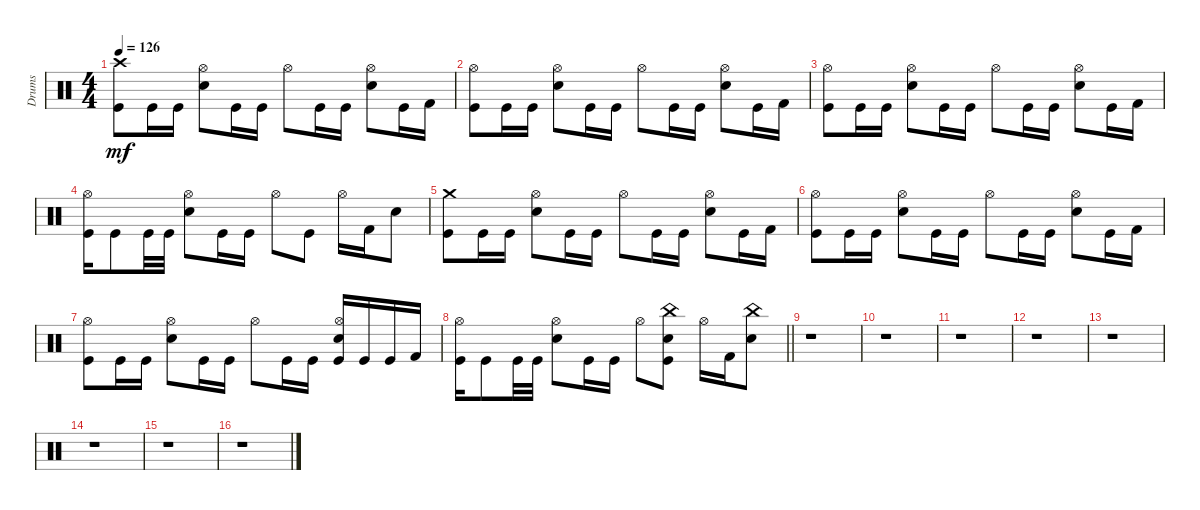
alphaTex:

\track ("Drums" "Drums") {instrument percussion bank 127}
\staff {score}
\articulation defaults
\ts (4 4)
\tempo 126
\clef neutral
\ks c
("Crash high (hit)" "Kick (hit)").8{dy mf} "Kick (hit)".16 "Kick (hit)".16 ("Hi-Hat (open)" "Snare (hit) 2").8 "Kick (hit)".16 "Kick (hit)".16 "Hi-Hat (open)".8 "Kick (hit)".16 "Kick (hit)".16 ("Hi-Hat (open)" "Snare (hit) 2").8 "Kick (hit)".16 "Kick (hit) 2".16 |
("Hi-Hat (open)" "Kick (hit)").8 "Kick (hit)".16 "Kick (hit)".16 ("Hi-Hat (open)" "Snare (hit) 2").8 "Kick (hit)".16 "Kick (hit)".16 "Hi-Hat (open)".8 "Kick (hit)".16 "Kick (hit)".16 ("Hi-Hat (open)" "Snare (hit) 2").8 "Kick (hit)".16 "Kick (hit) 2".16 |
("Hi-Hat (open)" "Kick (hit)").8 "Kick (hit)".16 "Kick (hit)".16 ("Hi-Hat (open)" "Snare (hit) 2").8 "Kick (hit)".16 "Kick (hit)".16 "Hi-Hat (open)".8 "Kick (hit)".16 "Kick (hit)".16 ("Hi-Hat (open)" "Snare (hit) 2").8 "Kick (hit)".16 "Kick (hit) 2".16 |
("Hi-Hat (open)" "Kick (hit)").16 "Kick (hit)".8 "Kick (hit)".32 "Kick (hit)".32 ("Hi-Hat (open)" "Snare (hit) 2").8 "Kick (hit)".16 "Kick (hit)".16 "Hi-Hat (open)".8 "Kick (hit)".8 "Hi-Hat (open)".16 "Kick (hit) 2".16 "Snare (hit) 2".8 |
("Crash medium (hit)" "Kick (hit)").8 "Kick (hit)".16 "Kick (hit)".16 ("Hi-Hat (open)" "Snare (hit) 2").8 "Kick (hit)".16 "Kick (hit)".16 "Hi-Hat (open)".8 "Kick (hit)".16 "Kick (hit)".16 ("Hi-Hat (open)" "Snare (hit) 2").8 "Kick (hit)".16 "Kick (hit) 2".16 |
("Hi-Hat (open)" "Kick (hit)").8 "Kick (hit)".16 "Kick (hit)".16 ("Hi-Hat (open)" "Snare (hit) 2").8 "Kick (hit)".16 "Kick (hit)".16 "Hi-Hat (open)".8 "Kick (hit)".16 "Kick (hit)".16 ("Hi-Hat (open)" "Snare (hit) 2").8 "Kick (hit)".16 "Kick (hit) 2".16 |
("Hi-Hat (open)" "Kick (hit)").8 "Kick (hit)".16 "Kick (hit)".16 ("Hi-Hat (open)" "Snare (hit) 2").8 "Kick (hit)".16 "Kick (hit)".16 "Hi-Hat (open)".8 "Kick (hit)".16 "Kick (hit)".16 ("Hi-Hat (open)" "Snare (hit) 2" "Kick (hit)").16 "Kick (hit)".16 "Kick (hit)".16 "Kick (hit) 2".16 |
\barLineRight lightlight
("Hi-Hat (open)" "Kick (hit)").16 "Kick (hit)".8 "Kick (hit)".32 "Kick (hit)".32 ("Hi-Hat (open)" "Snare (hit) 2").8 "Kick (hit)".16 "Kick (hit)".16 "Hi-Hat (open)".8 ("China (hit)" "Snare (hit) 2" "Kick (hit)").8 "Hi-Hat (open)".16 "Kick (hit) 2".16 ("China (hit)" "Snare (hit) 2").8 |
r.1 |
r.1 |
r.1 |
r.1 |
r.1 |
r.1 |
r.1 |
r.1
